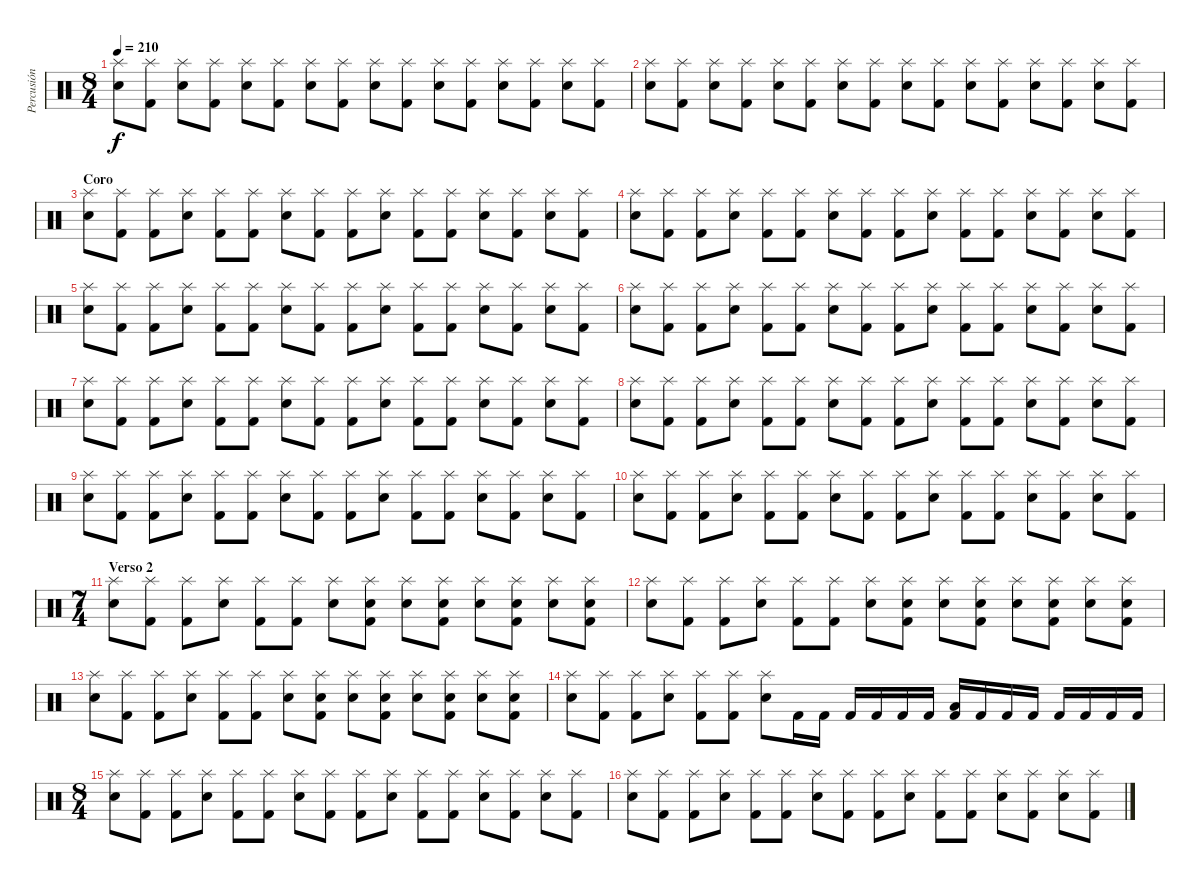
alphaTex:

\track ("Percusión" "Percusión") {instrument percussion}
\staff {score}
\articulation defaults
\ts (8 4)
\tempo 210
\clef neutral
\ks c
("Splash (hit)" "Electric Snare (hit)").8{dy f} ("Splash (hit)" "Kick (hit) 2").8 ("Splash (hit)" "Electric Snare (hit)").8 ("Splash (hit)" "Kick (hit) 2").8 ("Splash (hit)" "Electric Snare (hit)").8 ("Splash (hit)" "Kick (hit) 2").8 ("Splash (hit)" "Electric Snare (hit)").8 ("Splash (hit)" "Kick (hit) 2").8 ("Splash (hit)" "Electric Snare (hit)").8 ("Splash (hit)" "Kick (hit) 2").8 ("Splash (hit)" "Electric Snare (hit)").8 ("Splash (hit)" "Kick (hit) 2").8 ("Splash (hit)" "Electric Snare (hit)").8 ("Splash (hit)" "Kick (hit) 2").8 ("Splash (hit)" "Electric Snare (hit)").8 ("Splash (hit)" "Kick (hit) 2").8 |
("Splash (hit)" "Electric Snare (hit)").8 ("Splash (hit)" "Kick (hit) 2").8 ("Splash (hit)" "Electric Snare (hit)").8 ("Splash (hit)" "Kick (hit) 2").8 ("Splash (hit)" "Electric Snare (hit)").8 ("Splash (hit)" "Kick (hit) 2").8 ("Splash (hit)" "Electric Snare (hit)").8 ("Splash (hit)" "Kick (hit) 2").8 ("Splash (hit)" "Electric Snare (hit)").8 ("Splash (hit)" "Kick (hit) 2").8 ("Splash (hit)" "Electric Snare (hit)").8 ("Splash (hit)" "Kick (hit) 2").8 ("Splash (hit)" "Electric Snare (hit)").8 ("Splash (hit)" "Kick (hit) 2").8 ("Splash (hit)" "Electric Snare (hit)").8 ("Splash (hit)" "Kick (hit) 2").8 |
\section ("" "Coro")
("Splash (hit)" "Electric Snare (hit)").8 ("Splash (hit)" "Kick (hit) 2").8 ("Splash (hit)" "Kick (hit) 2").8 ("Splash (hit)" "Electric Snare (hit)").8 ("Splash (hit)" "Kick (hit) 2").8 ("Splash (hit)" "Kick (hit) 2").8 ("Splash (hit)" "Electric Snare (hit)").8 ("Splash (hit)" "Kick (hit) 2").8 ("Splash (hit)" "Kick (hit) 2").8 ("Splash (hit)" "Electric Snare (hit)").8 ("Splash (hit)" "Kick (hit) 2").8 ("Splash (hit)" "Kick (hit) 2").8 ("Splash (hit)" "Electric Snare (hit)").8 ("Splash (hit)" "Kick (hit) 2").8 ("Splash (hit)" "Electric Snare (hit)").8 ("Splash (hit)" "Kick (hit) 2").8 |
("Splash (hit)" "Electric Snare (hit)").8 ("Splash (hit)" "Kick (hit) 2").8 ("Splash (hit)" "Kick (hit) 2").8 ("Splash (hit)" "Electric Snare (hit)").8 ("Splash (hit)" "Kick (hit) 2").8 ("Splash (hit)" "Kick (hit) 2").8 ("Splash (hit)" "Electric Snare (hit)").8 ("Splash (hit)" "Kick (hit) 2").8 ("Splash (hit)" "Kick (hit) 2").8 ("Splash (hit)" "Electric Snare (hit)").8 ("Splash (hit)" "Kick (hit) 2").8 ("Splash (hit)" "Kick (hit) 2").8 ("Splash (hit)" "Electric Snare (hit)").8 ("Splash (hit)" "Kick (hit) 2").8 ("Splash (hit)" "Electric Snare (hit)").8 ("Splash (hit)" "Kick (hit) 2").8 |
("Splash (hit)" "Electric Snare (hit)").8 ("Splash (hit)" "Kick (hit) 2").8 ("Splash (hit)" "Kick (hit) 2").8 ("Splash (hit)" "Electric Snare (hit)").8 ("Splash (hit)" "Kick (hit) 2").8 ("Splash (hit)" "Kick (hit) 2").8 ("Splash (hit)" "Electric Snare (hit)").8 ("Splash (hit)" "Kick (hit) 2").8 ("Splash (hit)" "Kick (hit) 2").8 ("Splash (hit)" "Electric Snare (hit)").8 ("Splash (hit)" "Kick (hit) 2").8 ("Splash (hit)" "Kick (hit) 2").8 ("Splash (hit)" "Electric Snare (hit)").8 ("Splash (hit)" "Kick (hit) 2").8 ("Splash (hit)" "Electric Snare (hit)").8 ("Splash (hit)" "Kick (hit) 2").8 |
("Splash (hit)" "Electric Snare (hit)").8 ("Splash (hit)" "Kick (hit) 2").8 ("Splash (hit)" "Kick (hit) 2").8 ("Splash (hit)" "Electric Snare (hit)").8 ("Splash (hit)" "Kick (hit) 2").8 ("Splash (hit)" "Kick (hit) 2").8 ("Splash (hit)" "Electric Snare (hit)").8 ("Splash (hit)" "Kick (hit) 2").8 ("Splash (hit)" "Kick (hit) 2").8 ("Splash (hit)" "Electric Snare (hit)").8 ("Splash (hit)" "Kick (hit) 2").8 ("Splash (hit)" "Kick (hit) 2").8 ("Splash (hit)" "Electric Snare (hit)").8 ("Splash (hit)" "Kick (hit) 2").8 ("Splash (hit)" "Electric Snare (hit)").8 ("Splash (hit)" "Kick (hit) 2").8 |
("Splash (hit)" "Electric Snare (hit)").8 ("Splash (hit)" "Kick (hit) 2").8 ("Splash (hit)" "Kick (hit) 2").8 ("Splash (hit)" "Electric Snare (hit)").8 ("Splash (hit)" "Kick (hit) 2").8 ("Splash (hit)" "Kick (hit) 2").8 ("Splash (hit)" "Electric Snare (hit)").8 ("Splash (hit)" "Kick (hit) 2").8 ("Splash (hit)" "Kick (hit) 2").8 ("Splash (hit)" "Electric Snare (hit)").8 ("Splash (hit)" "Kick (hit) 2").8 ("Splash (hit)" "Kick (hit) 2").8 ("Splash (hit)" "Electric Snare (hit)").8 ("Splash (hit)" "Kick (hit) 2").8 ("Splash (hit)" "Electric Snare (hit)").8 ("Splash (hit)" "Kick (hit) 2").8 |
("Splash (hit)" "Electric Snare (hit)").8 ("Splash (hit)" "Kick (hit) 2").8 ("Splash (hit)" "Kick (hit) 2").8 ("Splash (hit)" "Electric Snare (hit)").8 ("Splash (hit)" "Kick (hit) 2").8 ("Splash (hit)" "Kick (hit) 2").8 ("Splash (hit)" "Electric Snare (hit)").8 ("Splash (hit)" "Kick (hit) 2").8 ("Splash (hit)" "Kick (hit) 2").8 ("Splash (hit)" "Electric Snare (hit)").8 ("Splash (hit)" "Kick (hit) 2").8 ("Splash (hit)" "Kick (hit) 2").8 ("Splash (hit)" "Electric Snare (hit)").8 ("Splash (hit)" "Kick (hit) 2").8 ("Splash (hit)" "Electric Snare (hit)").8 ("Splash (hit)" "Kick (hit) 2").8 |
("Splash (hit)" "Electric Snare (hit)").8 ("Splash (hit)" "Kick (hit) 2").8 ("Splash (hit)" "Kick (hit) 2").8 ("Splash (hit)" "Electric Snare (hit)").8 ("Splash (hit)" "Kick (hit) 2").8 ("Splash (hit)" "Kick (hit) 2").8 ("Splash (hit)" "Electric Snare (hit)").8 ("Splash (hit)" "Kick (hit) 2").8 ("Splash (hit)" "Kick (hit) 2").8 ("Splash (hit)" "Electric Snare (hit)").8 ("Splash (hit)" "Kick (hit) 2").8 ("Splash (hit)" "Kick (hit) 2").8 ("Splash (hit)" "Electric Snare (hit)").8 ("Splash (hit)" "Kick (hit) 2").8 ("Splash (hit)" "Electric Snare (hit)").8 ("Splash (hit)" "Kick (hit) 2").8 |
("Splash (hit)" "Electric Snare (hit)").8 ("Splash (hit)" "Kick (hit) 2").8 ("Splash (hit)" "Kick (hit) 2").8 ("Splash (hit)" "Electric Snare (hit)").8 ("Splash (hit)" "Kick (hit) 2").8 ("Splash (hit)" "Kick (hit) 2").8 ("Splash (hit)" "Electric Snare (hit)").8 ("Splash (hit)" "Kick (hit) 2").8 ("Splash (hit)" "Kick (hit) 2").8 ("Splash (hit)" "Electric Snare (hit)").8 ("Splash (hit)" "Kick (hit) 2").8 ("Splash (hit)" "Kick (hit) 2").8 ("Splash (hit)" "Electric Snare (hit)").8 ("Splash (hit)" "Kick (hit) 2").8 ("Splash (hit)" "Electric Snare (hit)").8 ("Splash (hit)" "Kick (hit) 2").8 |
\ts (7 4)
\section ("" "Verso 2")
("Splash (hit)" "Electric Snare (hit)").8 ("Splash (hit)" "Kick (hit) 2").8 ("Splash (hit)" "Kick (hit) 2").8 ("Splash (hit)" "Electric Snare (hit)").8 ("Splash (hit)" "Kick (hit) 2").8 ("Splash (hit)" "Kick (hit) 2").8 ("Splash (hit)" "Electric Snare (hit)").8 ("Splash (hit)" "Electric Snare (hit)" "Kick (hit) 2").8 ("Splash (hit)" "Electric Snare (hit)").8 ("Splash (hit)" "Electric Snare (hit)" "Kick (hit) 2").8 ("Splash (hit)" "Electric Snare (hit)").8 ("Splash (hit)" "Electric Snare (hit)" "Kick (hit) 2").8 ("Splash (hit)" "Electric Snare (hit)").8 ("Splash (hit)" "Electric Snare (hit)" "Kick (hit) 2").8 |
("Splash (hit)" "Electric Snare (hit)").8 ("Splash (hit)" "Kick (hit) 2").8 ("Splash (hit)" "Kick (hit) 2").8 ("Splash (hit)" "Electric Snare (hit)").8 ("Splash (hit)" "Kick (hit) 2").8 ("Splash (hit)" "Kick (hit) 2").8 ("Splash (hit)" "Electric Snare (hit)").8 ("Splash (hit)" "Electric Snare (hit)" "Kick (hit) 2").8 ("Splash (hit)" "Electric Snare (hit)").8 ("Splash (hit)" "Electric Snare (hit)" "Kick (hit) 2").8 ("Splash (hit)" "Electric Snare (hit)").8 ("Splash (hit)" "Electric Snare (hit)" "Kick (hit) 2").8 ("Splash (hit)" "Electric Snare (hit)").8 ("Splash (hit)" "Electric Snare (hit)" "Kick (hit) 2").8 |
("Splash (hit)" "Electric Snare (hit)").8 ("Splash (hit)" "Kick (hit) 2").8 ("Splash (hit)" "Kick (hit) 2").8 ("Splash (hit)" "Electric Snare (hit)").8 ("Splash (hit)" "Kick (hit) 2").8 ("Splash (hit)" "Kick (hit) 2").8 ("Splash (hit)" "Electric Snare (hit)").8 ("Splash (hit)" "Electric Snare (hit)" "Kick (hit) 2").8 ("Splash (hit)" "Electric Snare (hit)").8 ("Splash (hit)" "Electric Snare (hit)" "Kick (hit) 2").8 ("Splash (hit)" "Electric Snare (hit)").8 ("Splash (hit)" "Electric Snare (hit)" "Kick (hit) 2").8 ("Splash (hit)" "Electric Snare (hit)").8 ("Splash (hit)" "Electric Snare (hit)" "Kick (hit) 2").8 |
("Splash (hit)" "Electric Snare (hit)").8 ("Splash (hit)" "Kick (hit) 2").8 ("Splash (hit)" "Kick (hit) 2").8 ("Splash (hit)" "Electric Snare (hit)").8 ("Splash (hit)" "Kick (hit) 2").8 ("Splash (hit)" "Kick (hit) 2").8 ("Splash (hit)" "Electric Snare (hit)").8 "Kick (hit) 2".16 "Kick (hit) 2".16 "Kick (hit) 2".16 "Kick (hit) 2".16 "Kick (hit) 2".16 "Kick (hit) 2".16 ("Low Tom (hit)" "Kick (hit) 2").16 "Kick (hit) 2".16 "Kick (hit) 2".16 "Kick (hit) 2".16 "Kick (hit) 2".16 "Kick (hit) 2".16 "Kick (hit) 2".16 "Kick (hit) 2".16 |
\ts (8 4)
("Splash (hit)" "Electric Snare (hit)").8 ("Splash (hit)" "Kick (hit) 2").8 ("Splash (hit)" "Kick (hit) 2").8 ("Splash (hit)" "Electric Snare (hit)").8 ("Splash (hit)" "Kick (hit) 2").8 ("Splash (hit)" "Kick (hit) 2").8 ("Splash (hit)" "Electric Snare (hit)").8 ("Splash (hit)" "Kick (hit) 2").8 ("Splash (hit)" "Kick (hit) 2").8 ("Splash (hit)" "Electric Snare (hit)").8 ("Splash (hit)" "Kick (hit) 2").8 ("Splash (hit)" "Kick (hit) 2").8 ("Splash (hit)" "Electric Snare (hit)").8 ("Splash (hit)" "Kick (hit) 2").8 ("Splash (hit)" "Electric Snare (hit)").8 ("Splash (hit)" "Kick (hit) 2").8 |
("Splash (hit)" "Electric Snare (hit)").8 ("Splash (hit)" "Kick (hit) 2").8 ("Splash (hit)" "Kick (hit) 2").8 ("Splash (hit)" "Electric Snare (hit)").8 ("Splash (hit)" "Kick (hit) 2").8 ("Splash (hit)" "Kick (hit) 2").8 ("Splash (hit)" "Electric Snare (hit)").8 ("Splash (hit)" "Kick (hit) 2").8 ("Splash (hit)" "Kick (hit) 2").8 ("Splash (hit)" "Electric Snare (hit)").8 ("Splash (hit)" "Kick (hit) 2").8 ("Splash (hit)" "Kick (hit) 2").8 ("Splash (hit)" "Electric Snare (hit)").8 ("Splash (hit)" "Kick (hit) 2").8 ("Splash (hit)" "Electric Snare (hit)").8 ("Splash (hit)" "Kick (hit) 2").8
